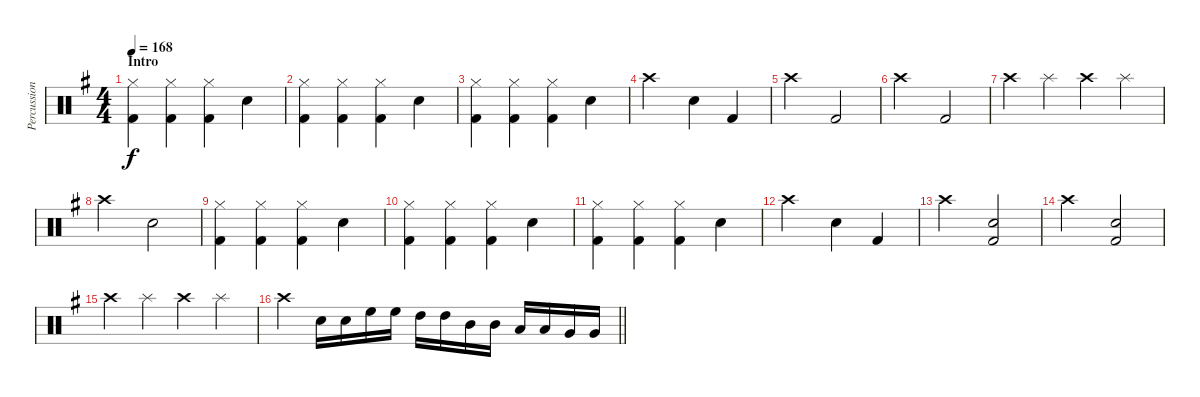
\track ("Percussion" "Percussion") {instrument percussion}
\staff {score}
\articulation defaults
\ts (4 4)
\section ("" "Intro")
\tempo 168
\clef neutral
\ks eminor
("Kick (hit) 2" "Hi-Hat (closed)").4{dy f} ("Kick (hit) 2" "Hi-Hat (closed)").4 ("Kick (hit) 2" "Hi-Hat (closed)").4 "Electric Snare (hit)".4 |
("Kick (hit) 2" "Hi-Hat (closed)").4 ("Kick (hit) 2" "Hi-Hat (closed)").4 ("Kick (hit) 2" "Hi-Hat (closed)").4 "Electric Snare (hit)".4 |
("Kick (hit) 2" "Hi-Hat (closed)").4 ("Kick (hit) 2" "Hi-Hat (closed)").4 ("Kick (hit) 2" "Hi-Hat (closed)").4 "Electric Snare (hit)".4 |
"Crash high (hit)".2 "Electric Snare (hit)".4 "Kick (hit) 2".4 |
"Crash high (hit)".2 "Kick (hit) 2".2 |
"Crash high (hit)".2 "Kick (hit) 2".2 |
"Crash high (hit)".4 "Splash (hit)".4 "Crash high (hit)".4 "Splash (hit)".4 |
"Crash high (hit)".2 "Electric Snare (hit)".2 |
("Kick (hit) 2" "Hi-Hat (closed)").4 ("Kick (hit) 2" "Hi-Hat (closed)").4 ("Kick (hit) 2" "Hi-Hat (closed)").4 "Electric Snare (hit)".4 |
("Kick (hit) 2" "Hi-Hat (closed)").4 ("Kick (hit) 2" "Hi-Hat (closed)").4 ("Kick (hit) 2" "Hi-Hat (closed)").4 "Electric Snare (hit)".4 |
("Kick (hit) 2" "Hi-Hat (closed)").4 ("Kick (hit) 2" "Hi-Hat (closed)").4 ("Kick (hit) 2" "Hi-Hat (closed)").4 "Electric Snare (hit)".4 |
"Crash high (hit)".2 "Electric Snare (hit)".4 "Kick (hit) 2".4 |
"Crash high (hit)".2 ("Kick (hit) 2" "Electric Snare (hit)").2 |
"Crash high (hit)".2 ("Kick (hit) 2" "Electric Snare (hit)").2 |
"Crash high (hit)".4 "Splash (hit)".4 "Crash high (hit)".4 "Splash (hit)".4 |
\barLineRight lightlight "Crash high (hit)".4 "Electric Snare (hit)".16 "Electric Snare (hit)".16 "High Floor Tom (hit)".16 "High Floor Tom (hit)".16 "High Tom (hit)".16 "High Tom (hit)".16 "Mid Tom (hit)".16 "Mid Tom (hit)".16 "Low Tom (hit)".16 "Low Tom (hit)".16 "Very Low Tom (hit)".16 "Very Low Tom (hit)".16
